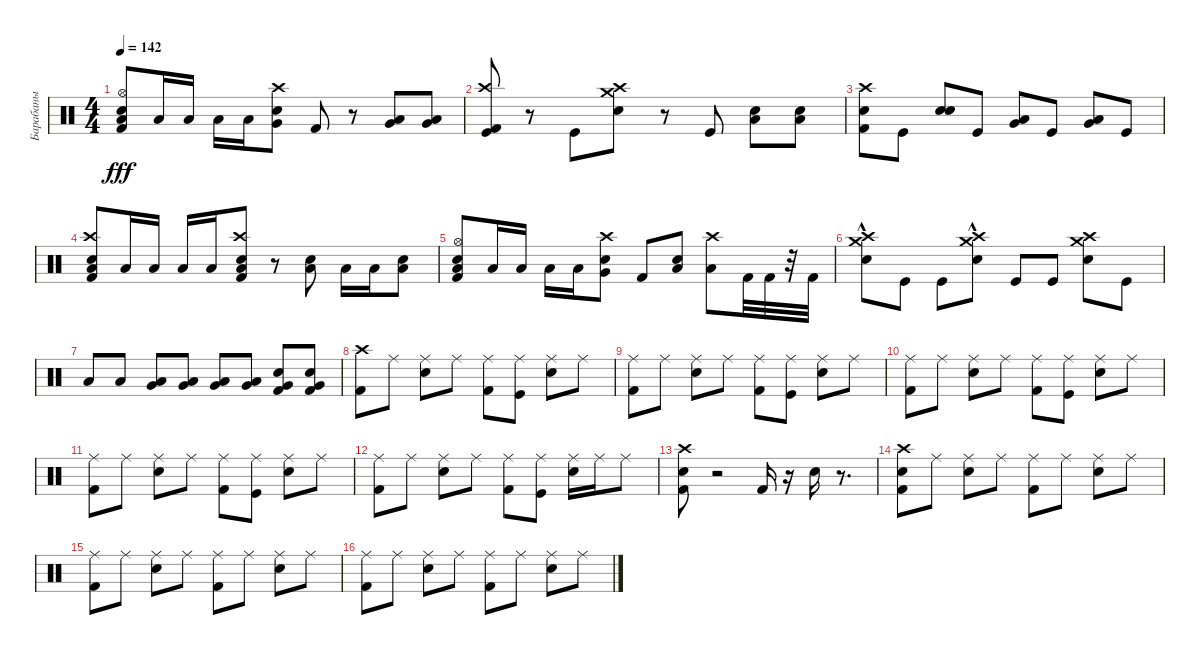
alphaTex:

\track ("Барабаны" "Барабаны") {instrument percussion}
\staff {score}
\articulation defaults
\ts (4 4)
\tempo 142
\clef neutral
\ks c
("Kick (hit) 2" "Hi-Hat (open)" "Snare (hit) 2" "Low Tom (hit)").8{dy fff} "Low Tom (hit)".16 "Low Tom (hit)".16 "Low Tom (hit)".16 "Low Tom (hit)".16 ("Very Low Tom (hit)" "Crash high (hit)" "Snare (hit) 2").8 "Kick (hit) 2".8 r.8 ("Low Tom (hit)" "Very Low Tom (hit)").8 ("Very Low Tom (hit)" "Low Floor Tom (hit)").8 |
("Kick (hit)" "Crash high (hit)" "Kick (hit) 2").8 r.8 "Kick (hit)".8 ("Crash high (hit)" "Crash medium (hit)" "Snare (hit) 2").8 r.8 "Kick (hit)".8 ("Low Tom (hit)" "Electric Snare (hit)").8 ("Low Tom (hit)" "Electric Snare (hit)").8 |
("Snare (hit) 2" "Crash high (hit)" "Kick (hit) 2").8 "Kick (hit)".8 ("Electric Snare (hit)" "Snare (hit) 2").8 "Kick (hit)".8 ("Low Tom (hit)" "Very Low Tom (hit)").8 "Kick (hit)".8 ("Low Tom (hit)" "Very Low Tom (hit)").8 "Kick (hit)".8 |
("Crash high (hit)" "Kick (hit) 2" "Low Tom (hit)" "Electric Snare (hit)").8 "Low Tom (hit)".16 "Low Tom (hit)".16 "Low Tom (hit)".16 "Low Tom (hit)".16 ("Kick (hit) 2" "Crash high (hit)" "Low Tom (hit)" "Electric Snare (hit)").8 r.8 ("Low Tom (hit)" "Electric Snare (hit)").8 "Low Floor Tom (hit)".16 "Low Floor Tom (hit)".16 ("Low Tom (hit)" "Electric Snare (hit)").8 |
("Kick (hit) 2" "Hi-Hat (open)" "Snare (hit) 2" "Low Tom (hit)").8 "Low Tom (hit)".16 "Low Tom (hit)".16 "Low Tom (hit)".16 "Low Tom (hit)".16 ("Very Low Tom (hit)" "Crash high (hit)" "Snare (hit) 2").8 "Kick (hit) 2".8 ("Snare (hit) 2" "Low Tom (hit)").8 ("Crash high (hit)" "Low Floor Tom (hit)").8 "Kick (hit) 2".32 "Kick (hit) 2".32 r.32 "Kick (hit) 2".32 |
("Crash high (hit)"{hac} "Crash medium (hit)"{hac} "Snare (hit) 2"{hac}).8 "Kick (hit)".8 "Kick (hit)".8 ("Crash medium (hit)"{hac} "Crash high (hit)"{hac} "Snare (hit) 2"{hac}).8 "Kick (hit)".8 "Kick (hit)".8 ("Crash medium (hit)" "Crash high (hit)" "Snare (hit) 2").8 "Kick (hit)".8 |
"Low Floor Tom (hit)".8 "Low Floor Tom (hit)".8 ("Low Floor Tom (hit)" "Very Low Tom (hit)").8 ("Low Floor Tom (hit)" "Very Low Tom (hit)").8 ("Very Low Tom (hit)" "Low Tom (hit)").8 ("Very Low Tom (hit)" "Low Tom (hit)").8 ("Kick (hit) 2" "Very Low Tom (hit)" "Snare (hit) 2").8 ("Kick (hit) 2" "Very Low Tom (hit)" "Snare (hit) 2").8 |
("Crash high (hit)" "Kick (hit) 2").8 "Ride (middle)".8 ("Snare (hit) 2" "Ride (middle)").8 "Ride (middle)".8 ("Kick (hit) 2" "Ride (middle)").8 ("Kick (hit)" "Ride (middle)").8 ("Snare (hit) 2" "Ride (middle)").8 "Ride (middle)".8 |
("Kick (hit) 2" "Ride (middle)").8 "Ride (middle)".8 ("Snare (hit) 2" "Ride (middle)").8 "Ride (middle)".8 ("Kick (hit) 2" "Ride (middle)").8 ("Kick (hit)" "Ride (middle)").8 ("Snare (hit) 2" "Ride (middle)").8 "Ride (middle)".8 |
("Kick (hit) 2" "Ride (middle)").8 "Ride (middle)".8 ("Snare (hit) 2" "Ride (middle)").8 "Ride (middle)".8 ("Kick (hit) 2" "Ride (middle)").8 ("Kick (hit)" "Ride (middle)").8 ("Snare (hit) 2" "Ride (middle)").8 "Ride (middle)".8 |
("Kick (hit) 2" "Ride (middle)").8 "Ride (middle)".8 ("Snare (hit) 2" "Ride (middle)").8 "Ride (middle)".8 ("Kick (hit) 2" "Ride (middle)").8 ("Kick (hit)" "Ride (middle)").8 ("Snare (hit) 2" "Ride (middle)").8 "Ride (middle)".8 |
("Ride (middle)" "Kick (hit) 2").8 "Ride (middle)".8 ("Ride (middle)" "Snare (hit) 2").8 "Ride (middle)".8 ("Kick (hit) 2" "Ride (middle)").8 ("Kick (hit)" "Ride (middle)").8 ("Snare (hit) 2" "Ride (middle)").16 "Ride (middle)".16 "Ride (middle)".8 |
("Crash high (hit)" "Snare (hit) 2" "Kick (hit) 2").8 r.2 "Kick (hit) 2".16 r.16 "Snare (hit) 2".16 r.8{d} |
("Snare (hit) 2" "Crash high (hit)" "Kick (hit) 2").8 "Ride (middle)".8 ("Ride (middle)" "Snare (hit) 2").8 "Ride (middle)".8 ("Ride (middle)" "Kick (hit) 2").8 "Ride (middle)".8 ("Ride (middle)" "Snare (hit) 2").8 "Ride (middle)".8 |
("Ride (middle)" "Kick (hit) 2").8 "Ride (middle)".8 ("Ride (middle)" "Snare (hit) 2").8 "Ride (middle)".8 ("Ride (middle)" "Kick (hit) 2").8 "Ride (middle)".8 ("Ride (middle)" "Snare (hit) 2").8 "Ride (middle)".8 |
("Ride (middle)" "Kick (hit) 2").8 "Ride (middle)".8 ("Ride (middle)" "Snare (hit) 2").8 "Ride (middle)".8 ("Ride (middle)" "Kick (hit) 2").8 "Ride (middle)".8 ("Ride (middle)" "Snare (hit) 2").8 "Ride (middle)".8
